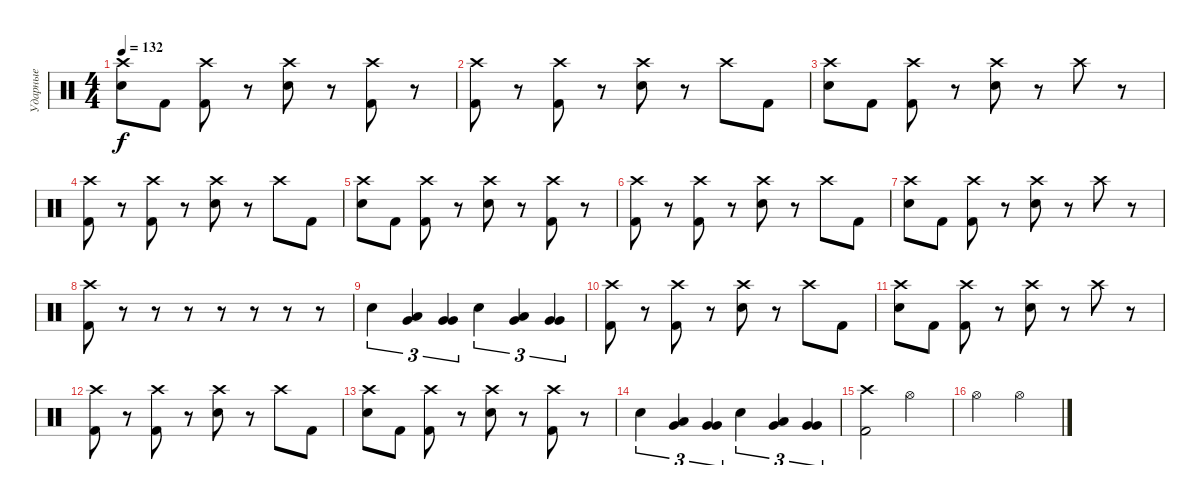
\track ("Ударные" "Ударные") {instrument percussion}
\staff {score}
\articulation defaults
\ts (4 4)
\tempo 132
\clef neutral
\ks c
("Snare (hit) 2" "Crash high (hit)").8{dy f} "Kick (hit) 2".8 ("Kick (hit) 2" "Crash high (hit)").8 r.8 ("Snare (hit) 2" "Crash high (hit)").8 r.8 ("Kick (hit) 2" "Crash high (hit)").8 r.8 |
("Kick (hit) 2" "Crash high (hit)").8 r.8 ("Kick (hit) 2" "Crash high (hit)").8 r.8 ("Snare (hit) 2" "Crash high (hit)").8 r.8 "Crash high (hit)".8 "Kick (hit) 2".8 |
("Snare (hit) 2" "Crash high (hit)").8 "Kick (hit) 2".8 ("Kick (hit) 2" "Crash high (hit)").8 r.8 ("Snare (hit) 2" "Crash high (hit)").8 r.8 "Crash high (hit)".8 r.8 |
("Kick (hit) 2" "Crash high (hit)").8 r.8 ("Kick (hit) 2" "Crash high (hit)").8 r.8 ("Snare (hit) 2" "Crash high (hit)").8 r.8 "Crash high (hit)".8 "Kick (hit) 2".8 |
("Snare (hit) 2" "Crash high (hit)").8 "Kick (hit) 2".8 ("Kick (hit) 2" "Crash high (hit)").8 r.8 ("Snare (hit) 2" "Crash high (hit)").8 r.8 ("Kick (hit) 2" "Crash high (hit)").8 r.8 |
("Kick (hit) 2" "Crash high (hit)").8 r.8 ("Kick (hit) 2" "Crash high (hit)").8 r.8 ("Snare (hit) 2" "Crash high (hit)").8 r.8 "Crash high (hit)".8 "Kick (hit) 2".8 |
("Snare (hit) 2" "Crash high (hit)").8 "Kick (hit) 2".8 ("Kick (hit) 2" "Crash high (hit)").8 r.8 ("Snare (hit) 2" "Crash high (hit)").8 r.8 "Crash high (hit)".8 r.8 |
("Kick (hit) 2" "Crash high (hit)").8 r.8 r.8 r.8 r.8 r.8 r.8 r.8 |
"Snare (hit) 2".4{tu (3 2)} ("Very Low Tom (hit)" "Low Tom (hit)").4{tu (3 2)} ("Very Low Tom (hit)" "Very Low Tom (hit)").4{tu (3 2)} "Snare (hit) 2".4{tu (3 2)} ("Very Low Tom (hit)" "Low Tom (hit)").4{tu (3 2)} ("Very Low Tom (hit)" "Very Low Tom (hit)").4{tu (3 2)} |
("Kick (hit) 2" "Crash high (hit)").8 r.8 ("Kick (hit) 2" "Crash high (hit)").8 r.8 ("Snare (hit) 2" "Crash high (hit)").8 r.8 "Crash high (hit)".8 "Kick (hit) 2".8 |
("Snare (hit) 2" "Crash high (hit)").8 "Kick (hit) 2".8 ("Kick (hit) 2" "Crash high (hit)").8 r.8 ("Snare (hit) 2" "Crash high (hit)").8 r.8 "Crash high (hit)".8 r.8 |
("Kick (hit) 2" "Crash high (hit)").8 r.8 ("Kick (hit) 2" "Crash high (hit)").8 r.8 ("Snare (hit) 2" "Crash high (hit)").8 r.8 "Crash high (hit)".8 "Kick (hit) 2".8 |
("Snare (hit) 2" "Crash high (hit)").8 "Kick (hit) 2".8 ("Kick (hit) 2" "Crash high (hit)").8 r.8 ("Snare (hit) 2" "Crash high (hit)").8 r.8 ("Kick (hit) 2" "Crash high (hit)").8 r.8 |
"Snare (hit) 2".4{tu (3 2)} ("Very Low Tom (hit)" "Low Tom (hit)").4{tu (3 2)} ("Very Low Tom (hit)" "Very Low Tom (hit)").4{tu (3 2)} "Snare (hit) 2".4{tu (3 2)} ("Very Low Tom (hit)" "Low Tom (hit)").4{tu (3 2)} ("Very Low Tom (hit)" "Very Low Tom (hit)").4{tu (3 2)} |
("Kick (hit) 2" "Crash high (hit)").2 "Hi-Hat (open)".2 |
"Hi-Hat (open)".2 "Hi-Hat (open)".2
